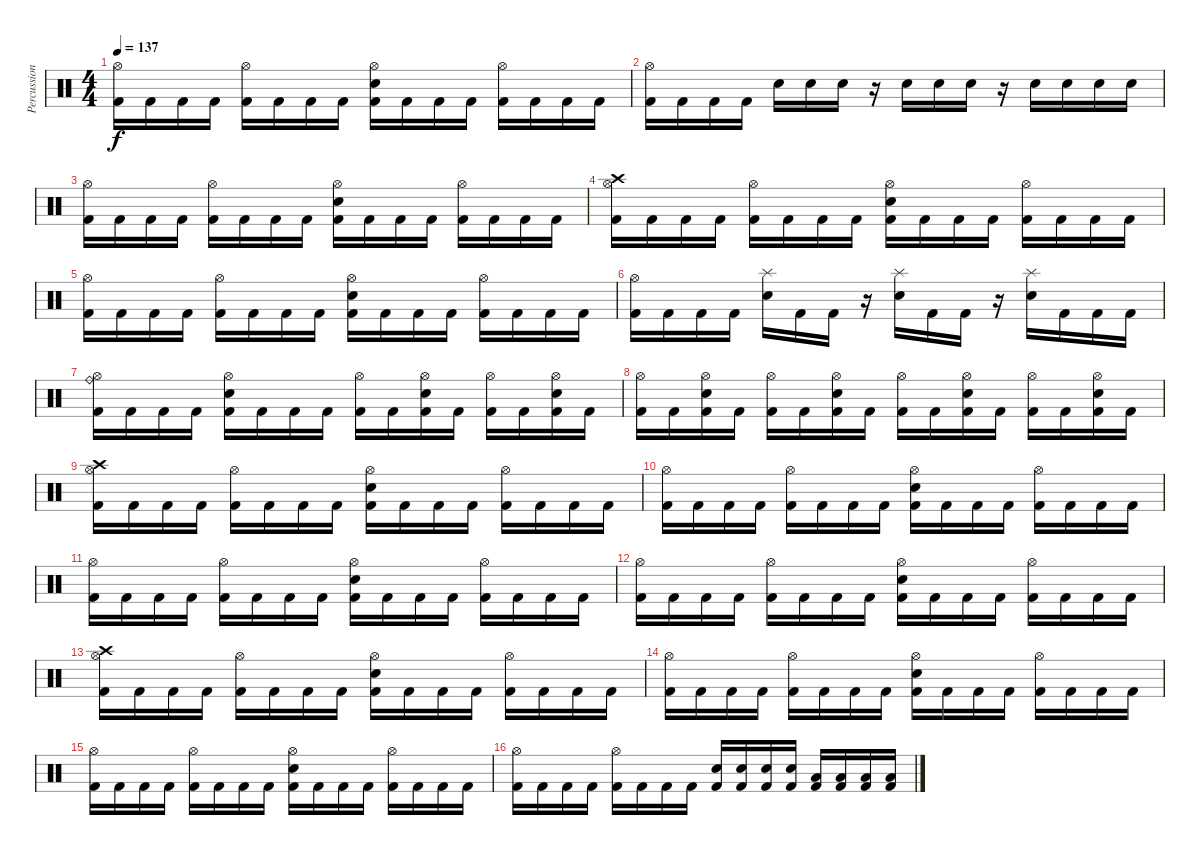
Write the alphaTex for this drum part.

\track ("Percussion" "Percussion") {instrument percussion}
\staff {score}
\articulation defaults
\ts (4 4)
\tempo 137
\clef neutral
\ks c
("Hi-Hat (open)" "Kick (hit) 2").16{dy f} "Kick (hit) 2".16 "Kick (hit) 2".16 "Kick (hit) 2".16 ("Hi-Hat (open)" "Kick (hit) 2").16 "Kick (hit) 2".16 "Kick (hit) 2".16 "Kick (hit) 2".16 ("Hi-Hat (open)" "Electric Snare (hit)" "Kick (hit) 2").16 "Kick (hit) 2".16 "Kick (hit) 2".16 "Kick (hit) 2".16 ("Hi-Hat (open)" "Kick (hit) 2").16 "Kick (hit) 2".16 "Kick (hit) 2".16 "Kick (hit) 2".16 |
("Hi-Hat (open)" "Kick (hit) 2").16 "Kick (hit) 2".16 "Kick (hit) 2".16 "Kick (hit) 2".16 "Electric Snare (hit)".16 "Electric Snare (hit)".16 "Electric Snare (hit)".16 r.16 "Electric Snare (hit)".16 "Electric Snare (hit)".16 "Electric Snare (hit)".16 r.16 "Electric Snare (hit)".16 "Electric Snare (hit)".16 "Electric Snare (hit)".16 "Electric Snare (hit)".16 |
("Hi-Hat (open)" "Kick (hit) 2").16 "Kick (hit) 2".16 "Kick (hit) 2".16 "Kick (hit) 2".16 ("Hi-Hat (open)" "Kick (hit) 2").16 "Kick (hit) 2".16 "Kick (hit) 2".16 "Kick (hit) 2".16 ("Hi-Hat (open)" "Electric Snare (hit)" "Kick (hit) 2").16 "Kick (hit) 2".16 "Kick (hit) 2".16 "Kick (hit) 2".16 ("Hi-Hat (open)" "Kick (hit) 2").16 "Kick (hit) 2".16 "Kick (hit) 2".16 "Kick (hit) 2".16 |
("Crash high (hit)" "Hi-Hat (open)" "Kick (hit) 2").16 "Kick (hit) 2".16 "Kick (hit) 2".16 "Kick (hit) 2".16 ("Hi-Hat (open)" "Kick (hit) 2").16 "Kick (hit) 2".16 "Kick (hit) 2".16 "Kick (hit) 2".16 ("Hi-Hat (open)" "Electric Snare (hit)" "Kick (hit) 2").16 "Kick (hit) 2".16 "Kick (hit) 2".16 "Kick (hit) 2".16 ("Hi-Hat (open)" "Kick (hit) 2").16 "Kick (hit) 2".16 "Kick (hit) 2".16 "Kick (hit) 2".16 |
("Hi-Hat (open)" "Kick (hit) 2").16 "Kick (hit) 2".16 "Kick (hit) 2".16 "Kick (hit) 2".16 ("Hi-Hat (open)" "Kick (hit) 2").16 "Kick (hit) 2".16 "Kick (hit) 2".16 "Kick (hit) 2".16 ("Hi-Hat (open)" "Electric Snare (hit)" "Kick (hit) 2").16 "Kick (hit) 2".16 "Kick (hit) 2".16 "Kick (hit) 2".16 ("Hi-Hat (open)" "Kick (hit) 2").16 "Kick (hit) 2".16 "Kick (hit) 2".16 "Kick (hit) 2".16 |
("Hi-Hat (open)" "Kick (hit) 2").16 "Kick (hit) 2".16 "Kick (hit) 2".16 "Kick (hit) 2".16 ("Splash (hit)" "Electric Snare (hit)").16 "Kick (hit) 2".16 "Kick (hit) 2".16 r.16 ("Splash (hit)" "Electric Snare (hit)").16 "Kick (hit) 2".16 "Kick (hit) 2".16 r.16 ("Splash (hit)" "Electric Snare (hit)").16 "Kick (hit) 2".16 "Kick (hit) 2".16 "Kick (hit) 2".16 |
("Ride (bell)" "Hi-Hat (open)" "Kick (hit) 2").16 "Kick (hit) 2".16 "Kick (hit) 2".16 "Kick (hit) 2".16 ("Hi-Hat (open)" "Electric Snare (hit)" "Kick (hit) 2").16 "Kick (hit) 2".16 "Kick (hit) 2".16 "Kick (hit) 2".16 ("Hi-Hat (open)" "Kick (hit) 2").16 "Kick (hit) 2".16 ("Hi-Hat (open)" "Electric Snare (hit)" "Kick (hit) 2").16 "Kick (hit) 2".16 ("Hi-Hat (open)" "Kick (hit) 2").16 "Kick (hit) 2".16 ("Hi-Hat (open)" "Electric Snare (hit)" "Kick (hit) 2").16 "Kick (hit) 2".16 |
("Hi-Hat (open)" "Kick (hit) 2").16 "Kick (hit) 2".16 ("Hi-Hat (open)" "Electric Snare (hit)" "Kick (hit) 2").16 "Kick (hit) 2".16 ("Hi-Hat (open)" "Kick (hit) 2").16 "Kick (hit) 2".16 ("Hi-Hat (open)" "Electric Snare (hit)" "Kick (hit) 2").16 "Kick (hit) 2".16 ("Hi-Hat (open)" "Kick (hit) 2").16 "Kick (hit) 2".16 ("Hi-Hat (open)" "Electric Snare (hit)" "Kick (hit) 2").16 "Kick (hit) 2".16 ("Hi-Hat (open)" "Kick (hit) 2").16 "Kick (hit) 2".16 ("Hi-Hat (open)" "Electric Snare (hit)" "Kick (hit) 2").16 "Kick (hit) 2".16 |
("Crash high (hit)" "Hi-Hat (open)" "Kick (hit) 2").16 "Kick (hit) 2".16 "Kick (hit) 2".16 "Kick (hit) 2".16 ("Hi-Hat (open)" "Kick (hit) 2").16 "Kick (hit) 2".16 "Kick (hit) 2".16 "Kick (hit) 2".16 ("Hi-Hat (open)" "Electric Snare (hit)" "Kick (hit) 2").16 "Kick (hit) 2".16 "Kick (hit) 2".16 "Kick (hit) 2".16 ("Hi-Hat (open)" "Kick (hit) 2").16 "Kick (hit) 2".16 "Kick (hit) 2".16 "Kick (hit) 2".16 |
("Hi-Hat (open)" "Kick (hit) 2").16 "Kick (hit) 2".16 "Kick (hit) 2".16 "Kick (hit) 2".16 ("Hi-Hat (open)" "Kick (hit) 2").16 "Kick (hit) 2".16 "Kick (hit) 2".16 "Kick (hit) 2".16 ("Hi-Hat (open)" "Electric Snare (hit)" "Kick (hit) 2").16 "Kick (hit) 2".16 "Kick (hit) 2".16 "Kick (hit) 2".16 ("Hi-Hat (open)" "Kick (hit) 2").16 "Kick (hit) 2".16 "Kick (hit) 2".16 "Kick (hit) 2".16 |
("Hi-Hat (open)" "Kick (hit) 2").16 "Kick (hit) 2".16 "Kick (hit) 2".16 "Kick (hit) 2".16 ("Hi-Hat (open)" "Kick (hit) 2").16 "Kick (hit) 2".16 "Kick (hit) 2".16 "Kick (hit) 2".16 ("Hi-Hat (open)" "Electric Snare (hit)" "Kick (hit) 2").16 "Kick (hit) 2".16 "Kick (hit) 2".16 "Kick (hit) 2".16 ("Hi-Hat (open)" "Kick (hit) 2").16 "Kick (hit) 2".16 "Kick (hit) 2".16 "Kick (hit) 2".16 |
("Hi-Hat (open)" "Kick (hit) 2").16 "Kick (hit) 2".16 "Kick (hit) 2".16 "Kick (hit) 2".16 ("Hi-Hat (open)" "Kick (hit) 2").16 "Kick (hit) 2".16 "Kick (hit) 2".16 "Kick (hit) 2".16 ("Hi-Hat (open)" "Electric Snare (hit)" "Kick (hit) 2").16 "Kick (hit) 2".16 "Kick (hit) 2".16 "Kick (hit) 2".16 ("Hi-Hat (open)" "Kick (hit) 2").16 "Kick (hit) 2".16 "Kick (hit) 2".16 "Kick (hit) 2".16 |
("Crash high (hit)" "Hi-Hat (open)" "Kick (hit) 2").16 "Kick (hit) 2".16 "Kick (hit) 2".16 "Kick (hit) 2".16 ("Hi-Hat (open)" "Kick (hit) 2").16 "Kick (hit) 2".16 "Kick (hit) 2".16 "Kick (hit) 2".16 ("Hi-Hat (open)" "Electric Snare (hit)" "Kick (hit) 2").16 "Kick (hit) 2".16 "Kick (hit) 2".16 "Kick (hit) 2".16 ("Hi-Hat (open)" "Kick (hit) 2").16 "Kick (hit) 2".16 "Kick (hit) 2".16 "Kick (hit) 2".16 |
("Hi-Hat (open)" "Kick (hit) 2").16 "Kick (hit) 2".16 "Kick (hit) 2".16 "Kick (hit) 2".16 ("Hi-Hat (open)" "Kick (hit) 2").16 "Kick (hit) 2".16 "Kick (hit) 2".16 "Kick (hit) 2".16 ("Hi-Hat (open)" "Electric Snare (hit)" "Kick (hit) 2").16 "Kick (hit) 2".16 "Kick (hit) 2".16 "Kick (hit) 2".16 ("Hi-Hat (open)" "Kick (hit) 2").16 "Kick (hit) 2".16 "Kick (hit) 2".16 "Kick (hit) 2".16 |
("Hi-Hat (open)" "Kick (hit) 2").16 "Kick (hit) 2".16 "Kick (hit) 2".16 "Kick (hit) 2".16 ("Hi-Hat (open)" "Kick (hit) 2").16 "Kick (hit) 2".16 "Kick (hit) 2".16 "Kick (hit) 2".16 ("Hi-Hat (open)" "Electric Snare (hit)" "Kick (hit) 2").16 "Kick (hit) 2".16 "Kick (hit) 2".16 "Kick (hit) 2".16 ("Hi-Hat (open)" "Kick (hit) 2").16 "Kick (hit) 2".16 "Kick (hit) 2".16 "Kick (hit) 2".16 |
("Hi-Hat (open)" "Kick (hit) 2").16 "Kick (hit) 2".16 "Kick (hit) 2".16 "Kick (hit) 2".16 ("Hi-Hat (open)" "Kick (hit) 2").16 "Kick (hit) 2".16 "Kick (hit) 2".16 "Kick (hit) 2".16 ("Electric Snare (hit)" "Kick (hit) 2").16 ("Electric Snare (hit)" "Kick (hit) 2").16 ("Electric Snare (hit)" "Kick (hit) 2").16 ("Electric Snare (hit)" "Kick (hit) 2").16 ("Low Floor Tom (hit)" "Kick (hit) 2").16 ("Low Floor Tom (hit)" "Kick (hit) 2").16 ("Low Floor Tom (hit)" "Kick (hit) 2").16 ("Low Floor Tom (hit)" "Kick (hit) 2").16
